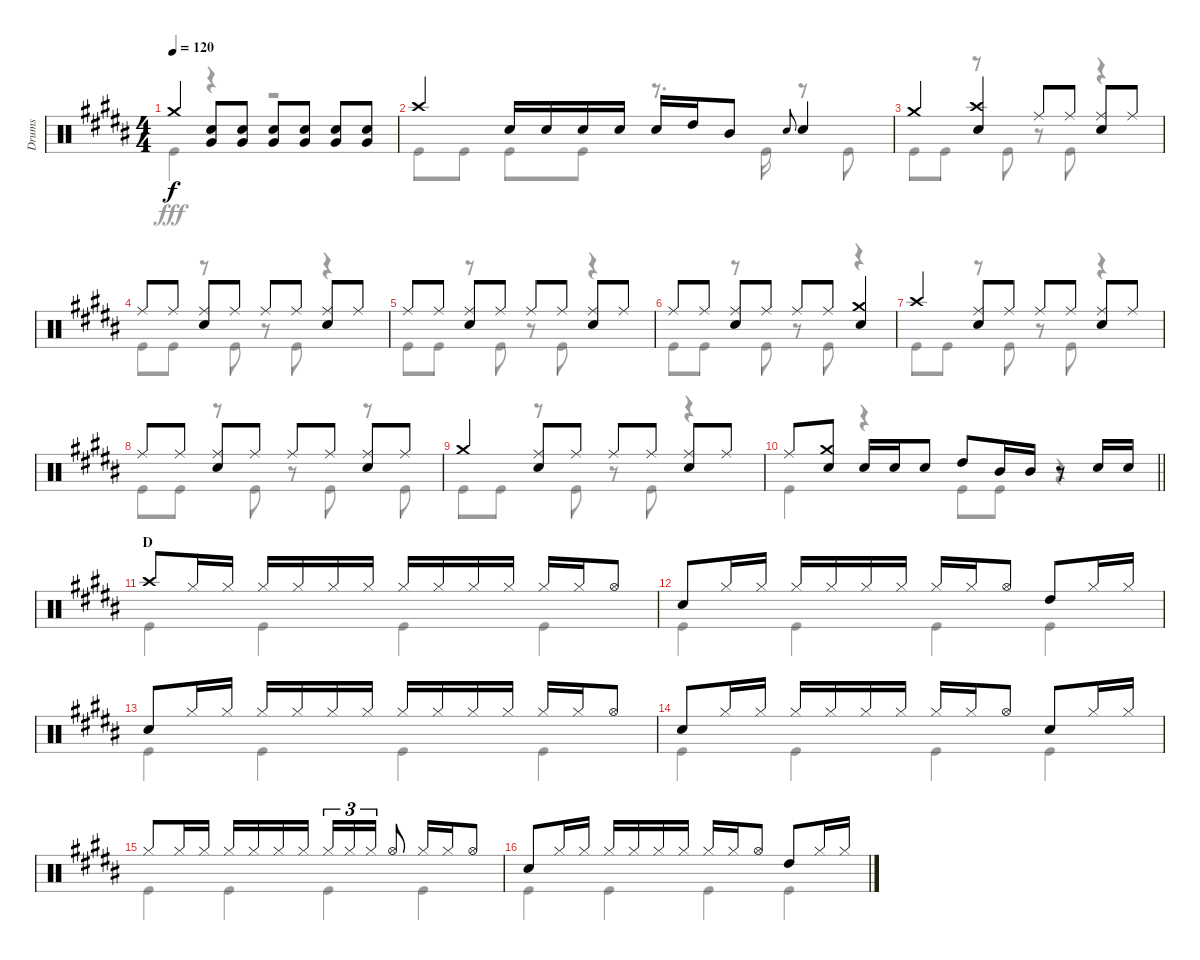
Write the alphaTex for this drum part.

\track ("Drums" "Drums") {instrument percussion}
\staff {score}
\articulation defaults
\voice
\ts (4 4)
\tempo 120
\clef neutral
\ks b "Crash medium (hit)".4{dy f}
("Snare (hit) 2" "Very Low Tom (hit)").8 ("Snare (hit) 2" "Very Low Tom (hit)").8 ("Snare (hit) 2" "Very Low Tom (hit)").8 ("Snare (hit) 2" "Very Low Tom (hit)").8 ("Snare (hit) 2" "Very Low Tom (hit)").8 ("Snare (hit) 2" "Very Low Tom (hit)").8 |
"Crash high (hit)".4 "Snare (hit) 2".16 "Snare (hit) 2".16 "Snare (hit) 2".16 "Snare (hit) 2".16 "Snare (hit) 2".16 "High Tom (hit)".16 "Mid Tom (hit)".8 "Snare (hit) 2".8{gr onbeat} "Snare (hit) 2".4 |
"Crash medium (hit)".4 ("Crash high (hit)" "Snare (hit) 2").4 "Ride (middle)".8 "Ride (middle)".8 ("Ride (middle)" "Snare (hit) 2").8 "Ride (middle)".8 |
"Ride (middle)".8 "Ride (middle)".8 ("Ride (middle)" "Snare (hit) 2").8 "Ride (middle)".8 "Ride (middle)".8 "Ride (middle)".8 ("Ride (middle)" "Snare (hit) 2").8 "Ride (middle)".8 |
"Ride (middle)".8 "Ride (middle)".8 ("Ride (middle)" "Snare (hit) 2").8 "Ride (middle)".8 "Ride (middle)".8 "Ride (middle)".8 ("Ride (middle)" "Snare (hit) 2").8 "Ride (middle)".8 |
"Ride (middle)".8 "Ride (middle)".8 ("Ride (middle)" "Snare (hit) 2").8 "Ride (middle)".8 "Ride (middle)".8 "Ride (middle)".8 ("Crash medium (hit)" "Snare (hit) 2").4 |
"Crash high (hit)".4 ("Ride (middle)" "Snare (hit) 2").8 "Ride (middle)".8 "Ride (middle)".8 "Ride (middle)".8 ("Ride (middle)" "Snare (hit) 2").8 "Ride (middle)".8 |
"Ride (middle)".8 "Ride (middle)".8 ("Ride (middle)" "Snare (hit) 2").8 "Ride (middle)".8 "Ride (middle)".8 "Ride (middle)".8 ("Ride (middle)" "Snare (hit) 2").8 "Ride (middle)".8 |
"Crash medium (hit)".4 ("Ride (middle)" "Snare (hit) 2").8 "Ride (middle)".8 "Ride (middle)".8 "Ride (middle)".8 ("Ride (middle)" "Snare (hit) 2").8 "Ride (middle)".8 |
\barLineRight lightlight "Ride (middle)".8
("Crash medium (hit)" "Snare (hit) 2").8 "Snare (hit) 2".16 "Snare (hit) 2".16 "Snare (hit) 2".8 "High Tom (hit)".8 "Mid Tom (hit)".16 "Mid Tom (hit)".16 r.8 "Snare (hit) 2".16 "Snare (hit) 2".16 |
\section ("" "D")
"Crash high (hit)".8 "Hi-Hat (closed)".16 "Hi-Hat (closed)".16 "Hi-Hat (closed)".16 "Hi-Hat (closed)".16 "Hi-Hat (closed)".16 "Hi-Hat (closed)".16 "Hi-Hat (closed)".16 "Hi-Hat (closed)".16 "Hi-Hat (closed)".16 "Hi-Hat (closed)".16 "Hi-Hat (closed)".16 "Hi-Hat (closed)".16 "Hi-Hat (open)".8 |
"Snare (hit) 2".8 "Hi-Hat (closed)".16 "Hi-Hat (closed)".16 "Hi-Hat (closed)".16 "Hi-Hat (closed)".16 "Hi-Hat (closed)".16 "Hi-Hat (closed)".16 "Hi-Hat (closed)".16 "Hi-Hat (closed)".16 "Hi-Hat (open)".8 "High Tom (hit)".8 "Hi-Hat (closed)".16 "Hi-Hat (closed)".16 |
"Snare (hit) 2".8 "Hi-Hat (closed)".16 "Hi-Hat (closed)".16 "Hi-Hat (closed)".16 "Hi-Hat (closed)".16 "Hi-Hat (closed)".16 "Hi-Hat (closed)".16 "Hi-Hat (closed)".16 "Hi-Hat (closed)".16 "Hi-Hat (closed)".16 "Hi-Hat (closed)".16 "Hi-Hat (closed)".16 "Hi-Hat (closed)".16 "Hi-Hat (open)".8 |
"Snare (hit) 2".8 "Hi-Hat (closed)".16 "Hi-Hat (closed)".16 "Hi-Hat (closed)".16 "Hi-Hat (closed)".16 "Hi-Hat (closed)".16 "Hi-Hat (closed)".16 "Hi-Hat (closed)".16 "Hi-Hat (closed)".16 "Hi-Hat (open)".8 "Snare (hit) 2".8 "Hi-Hat (closed)".16 "Hi-Hat (closed)".16 |
"Hi-Hat (closed)".8 "Hi-Hat (closed)".16 "Hi-Hat (closed)".16 "Hi-Hat (closed)".16 "Hi-Hat (closed)".16 "Hi-Hat (closed)".16 "Hi-Hat (closed)".16 "Hi-Hat (closed)".16{tu (3 2)} "Hi-Hat (closed)".16{tu (3 2)} "Hi-Hat (closed)".16{tu (3 2)} "Hi-Hat (open)".8 "Hi-Hat (closed)".16 "Hi-Hat (closed)".16 "Hi-Hat (open)".8 |
"Snare (hit) 2".8 "Hi-Hat (closed)".16 "Hi-Hat (closed)".16 "Hi-Hat (closed)".16 "Hi-Hat (closed)".16 "Hi-Hat (closed)".16 "Hi-Hat (closed)".16 "Hi-Hat (closed)".16 "Hi-Hat (closed)".16 "Hi-Hat (open)".8 "High Tom (hit)".8 "Hi-Hat (closed)".16 "Hi-Hat (closed)".16
\voice
\clef neutral
\ottava regular
\simile none
\ks b "Kick (hit)".4{dy fff}
r.4 r.2 |
"Kick (hit)".8 "Kick (hit)".8 "Kick (hit)".8 "Kick (hit)".8 r.8{d} "Kick (hit)".16 r.8 "Kick (hit)".8 |
"Kick (hit)".8 "Kick (hit)".8 r.8 "Kick (hit)".8 r.8 "Kick (hit)".8 r.4 |
"Kick (hit)".8 "Kick (hit)".8 r.8 "Kick (hit)".8 r.8 "Kick (hit)".8 r.4 |
"Kick (hit)".8 "Kick (hit)".8 r.8 "Kick (hit)".8 r.8 "Kick (hit)".8 r.4 |
"Kick (hit)".8 "Kick (hit)".8 r.8 "Kick (hit)".8 r.8 "Kick (hit)".8 r.4 |
"Kick (hit)".8 "Kick (hit)".8 r.8 "Kick (hit)".8 r.8 "Kick (hit)".8 r.4 |
"Kick (hit)".8 "Kick (hit)".8 r.8 "Kick (hit)".8 r.8 "Kick (hit)".8 r.8 "Kick (hit)".8 |
"Kick (hit)".8 "Kick (hit)".8 r.8 "Kick (hit)".8 r.8 "Kick (hit)".8 r.4 |
\barLineRight lightlight "Kick (hit)".4
r.4 "Kick (hit)".8 "Kick (hit)".8 r.4 |
"Kick (hit)".4 "Kick (hit)".4 "Kick (hit)".4 "Kick (hit)".4 |
"Kick (hit)".4 "Kick (hit)".4 "Kick (hit)".4 "Kick (hit)".4 |
"Kick (hit)".4 "Kick (hit)".4 "Kick (hit)".4 "Kick (hit)".4 |
"Kick (hit)".4 "Kick (hit)".4 "Kick (hit)".4 "Kick (hit)".4 |
"Kick (hit)".4 "Kick (hit)".4 "Kick (hit)".4 "Kick (hit)".4 |
"Kick (hit)".4 "Kick (hit)".4 "Kick (hit)".4 "Kick (hit)".4
